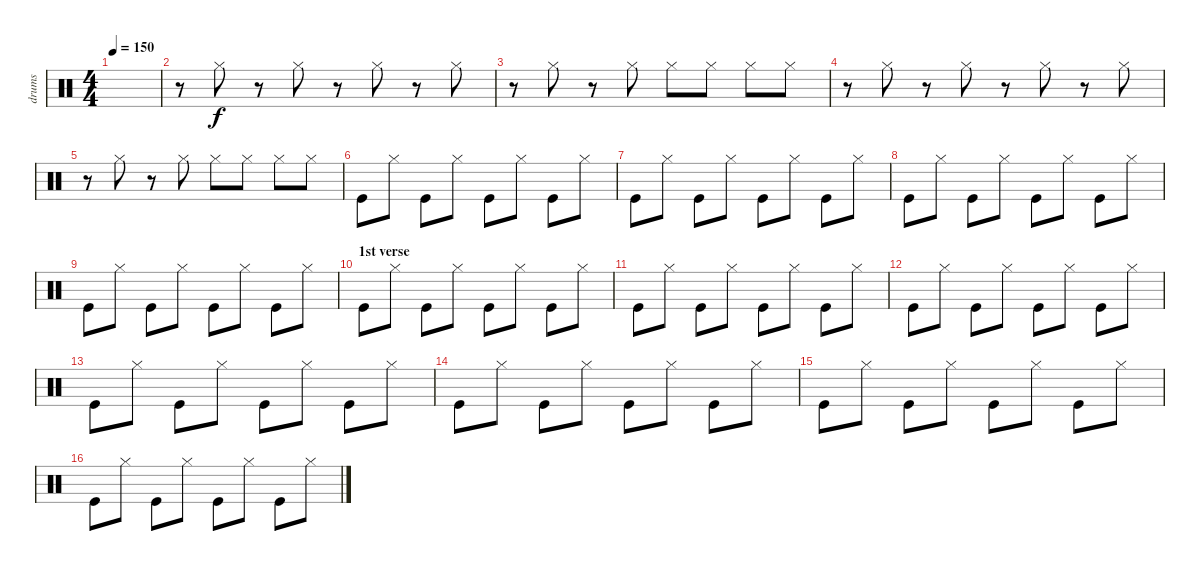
\track ("drums" "drums") {instrument percussion}
\staff {score}
\articulation defaults
\ts (4 4)
\tempo 150
\clef neutral
\ks c
|
r.8 "Hi-Hat (closed)".8 r.8 "Hi-Hat (closed)".8 r.8 "Hi-Hat (closed)".8 r.8 "Hi-Hat (closed)".8 |
r.8 "Hi-Hat (closed)".8 r.8 "Hi-Hat (closed)".8 "Hi-Hat (closed)".8 "Hi-Hat (closed)".8 "Hi-Hat (closed)".8 "Hi-Hat (closed)".8 |
r.8 "Hi-Hat (closed)".8 r.8 "Hi-Hat (closed)".8 r.8 "Hi-Hat (closed)".8 r.8 "Hi-Hat (closed)".8 |
r.8 "Hi-Hat (closed)".8 r.8 "Hi-Hat (closed)".8 "Hi-Hat (closed)".8 "Hi-Hat (closed)".8 "Hi-Hat (closed)".8 "Hi-Hat (closed)".8 |
"Kick (hit)".8 "Hi-Hat (closed)".8 "Kick (hit)".8 "Hi-Hat (closed)".8 "Kick (hit)".8 "Hi-Hat (closed)".8 "Kick (hit)".8 "Hi-Hat (closed)".8 |
"Kick (hit)".8 "Hi-Hat (closed)".8 "Kick (hit)".8 "Hi-Hat (closed)".8 "Kick (hit)".8 "Hi-Hat (closed)".8 "Kick (hit)".8 "Hi-Hat (closed)".8 |
"Kick (hit)".8 "Hi-Hat (closed)".8 "Kick (hit)".8 "Hi-Hat (closed)".8 "Kick (hit)".8 "Hi-Hat (closed)".8 "Kick (hit)".8 "Hi-Hat (closed)".8 |
"Kick (hit)".8 "Hi-Hat (closed)".8 "Kick (hit)".8 "Hi-Hat (closed)".8 "Kick (hit)".8 "Hi-Hat (closed)".8 "Kick (hit)".8 "Hi-Hat (closed)".8 |
\section ("" "1st verse")
"Kick (hit)".8 "Hi-Hat (closed)".8 "Kick (hit)".8 "Hi-Hat (closed)".8 "Kick (hit)".8 "Hi-Hat (closed)".8 "Kick (hit)".8 "Hi-Hat (closed)".8 |
"Kick (hit)".8 "Hi-Hat (closed)".8 "Kick (hit)".8 "Hi-Hat (closed)".8 "Kick (hit)".8 "Hi-Hat (closed)".8 "Kick (hit)".8 "Hi-Hat (closed)".8 |
"Kick (hit)".8 "Hi-Hat (closed)".8 "Kick (hit)".8 "Hi-Hat (closed)".8 "Kick (hit)".8 "Hi-Hat (closed)".8 "Kick (hit)".8 "Hi-Hat (closed)".8 |
"Kick (hit)".8 "Hi-Hat (closed)".8 "Kick (hit)".8 "Hi-Hat (closed)".8 "Kick (hit)".8 "Hi-Hat (closed)".8 "Kick (hit)".8 "Hi-Hat (closed)".8 |
"Kick (hit)".8 "Hi-Hat (closed)".8 "Kick (hit)".8 "Hi-Hat (closed)".8 "Kick (hit)".8 "Hi-Hat (closed)".8 "Kick (hit)".8 "Hi-Hat (closed)".8 |
"Kick (hit)".8 "Hi-Hat (closed)".8 "Kick (hit)".8 "Hi-Hat (closed)".8 "Kick (hit)".8 "Hi-Hat (closed)".8 "Kick (hit)".8 "Hi-Hat (closed)".8 |
"Kick (hit)".8 "Hi-Hat (closed)".8 "Kick (hit)".8 "Hi-Hat (closed)".8 "Kick (hit)".8 "Hi-Hat (closed)".8 "Kick (hit)".8 "Hi-Hat (closed)".8
